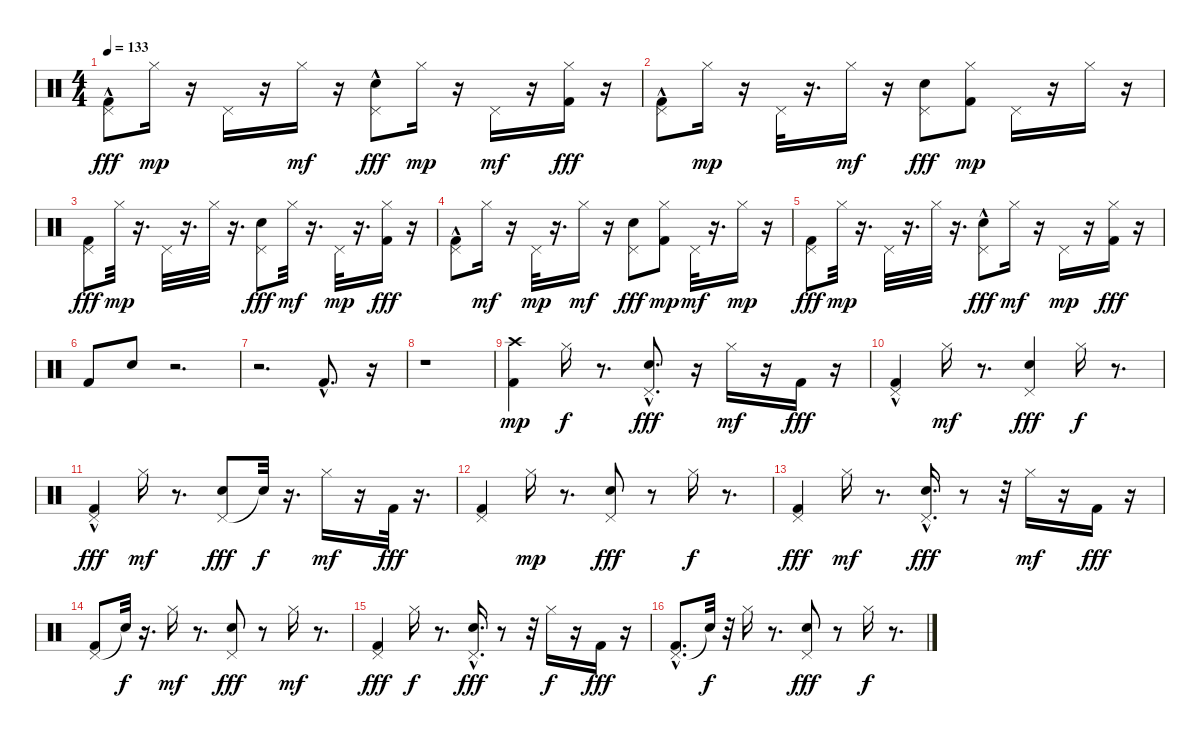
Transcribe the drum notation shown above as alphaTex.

\track "" {instrument percussion}
\staff {score}
\articulation defaults
\ts (4 4)
\tempo 133
\clef neutral
\ks c
("Pedal Hi-Hat (hit)" "Kick (hit) 2"{hac}).8{dy fff} "Hi-Hat (closed)".16{dy mp} r.16 "Pedal Hi-Hat (hit)".16 r.16 "Hi-Hat (closed)".16{dy mf} r.16 ("Pedal Hi-Hat (hit)" "Snare (hit) 2"{hac}).8{dy fff} "Hi-Hat (closed)".16{dy mp} r.16 "Pedal Hi-Hat (hit)".16{dy mf} r.16 ("Hi-Hat (closed)" "Kick (hit) 2").16{dy fff} r.16 |
("Pedal Hi-Hat (hit)" "Kick (hit) 2"{hac}).8 "Hi-Hat (closed)".16{dy mp} r.16 "Pedal Hi-Hat (hit)".32 r.16{d} "Hi-Hat (closed)".16{dy mf} r.16 ("Pedal Hi-Hat (hit)" "Snare (hit) 2").8{dy fff} ("Kick (hit) 2" "Hi-Hat (closed)").8{dy mp} "Pedal Hi-Hat (hit)".16 r.16 "Hi-Hat (closed)".16 r.16 |
("Pedal Hi-Hat (hit)" "Kick (hit) 2").8{dy fff} "Hi-Hat (closed)".32{dy mp} r.16{d} "Pedal Hi-Hat (hit)".32 r.16{d} "Hi-Hat (closed)".32 r.16{d} ("Pedal Hi-Hat (hit)" "Snare (hit) 2").8{dy fff} "Hi-Hat (closed)".32{dy mf} r.16{d} "Pedal Hi-Hat (hit)".32{dy mp} r.16{d} ("Hi-Hat (closed)" "Kick (hit) 2").16{dy fff} r.16 |
("Pedal Hi-Hat (hit)" "Kick (hit) 2"{hac}).8 "Hi-Hat (closed)".16{dy mf} r.16 "Pedal Hi-Hat (hit)".32{dy mp} r.16{d} "Hi-Hat (closed)".16{dy mf} r.16 ("Pedal Hi-Hat (hit)" "Snare (hit) 2").8{dy fff} ("Kick (hit) 2" "Hi-Hat (closed)").8{dy mp} "Pedal Hi-Hat (hit)".32{dy mf} r.16{d} "Hi-Hat (closed)".16{dy mp} r.16 |
("Pedal Hi-Hat (hit)" "Kick (hit) 2").8{dy fff} "Hi-Hat (closed)".32{dy mp} r.16{d} "Pedal Hi-Hat (hit)".32 r.16{d} "Hi-Hat (closed)".32 r.16{d} ("Pedal Hi-Hat (hit)" "Snare (hit) 2"{hac}).8{dy fff} "Hi-Hat (closed)".16{dy mf} r.16 "Pedal Hi-Hat (hit)".16{dy mp} r.16 ("Hi-Hat (closed)" "Kick (hit) 2").16{dy fff} r.16 |
"Kick (hit) 2".8 "Snare (hit) 2".8 r.2{d} |
r.2{d} "Kick (hit) 2"{hac}.8{d} r.16 |
r.1 |
("Kick (hit) 2" "Crash high (hit)").4{dy mp} "Hi-Hat (closed)".16{dy f} r.8{d} ("Pedal Hi-Hat (hit)" "Snare (hit) 2"{hac}).8{d dy fff} r.16 "Hi-Hat (closed)".16{dy mf} r.16 "Kick (hit) 2".16{dy fff} r.16 |
("Pedal Hi-Hat (hit)" "Kick (hit) 2"{hac}).4 "Hi-Hat (closed)".16{dy mf} r.8{d} ("Pedal Hi-Hat (hit)" "Snare (hit) 2").4{dy fff} "Hi-Hat (closed)".16{dy f} r.8{d} |
("Pedal Hi-Hat (hit)" "Kick (hit) 2"{hac}).4{dy fff} "Hi-Hat (closed)".16{dy mf} r.8{d} ("Pedal Hi-Hat (hit)" "Snare (hit) 2").8{dy fff} "Snare (hit)"{t}.32{dy f} r.16{d} "Hi-Hat (closed)".16{dy mf} r.16 "Kick (hit) 2".32{dy fff} r.16{d} |
("Pedal Hi-Hat (hit)" "Kick (hit) 2").4 "Hi-Hat (closed)".16{dy mp} r.8{d} ("Pedal Hi-Hat (hit)" "Snare (hit) 2").8{dy fff} r.8 "Hi-Hat (closed)".16{dy f} r.8{d} |
("Pedal Hi-Hat (hit)" "Kick (hit) 2").4{dy fff} "Hi-Hat (closed)".16{dy mf} r.8{d} ("Pedal Hi-Hat (hit)" "Snare (hit) 2"{hac}).16{d dy fff} r.8 r.32 "Hi-Hat (closed)".16{dy mf} r.16 "Kick (hit) 2".16{dy fff} r.16 |
("Pedal Hi-Hat (hit)" "Kick (hit) 2").8 "Snare (hit)"{t}.32{dy f} r.16{d} "Hi-Hat (closed)".16{dy mf} r.8{d} ("Pedal Hi-Hat (hit)" "Snare (hit) 2").8{dy fff} r.8 "Hi-Hat (closed)".16{dy mf} r.8{d} |
("Pedal Hi-Hat (hit)" "Kick (hit) 2").4{dy fff} "Hi-Hat (closed)".16{dy f} r.8{d} ("Pedal Hi-Hat (hit)" "Snare (hit) 2"{hac}).16{d dy fff} r.8 r.32 "Hi-Hat (closed)".16{dy f} r.16 "Kick (hit) 2".16{dy fff} r.16 |
("Pedal Hi-Hat (hit)" "Kick (hit) 2"{hac}).8{d} "Snare (hit)"{t}.32{dy f} r.32 "Hi-Hat (closed)".16 r.8{d} ("Pedal Hi-Hat (hit)" "Snare (hit) 2").8{dy fff} r.8 "Hi-Hat (closed)".16{dy f} r.8{d}
